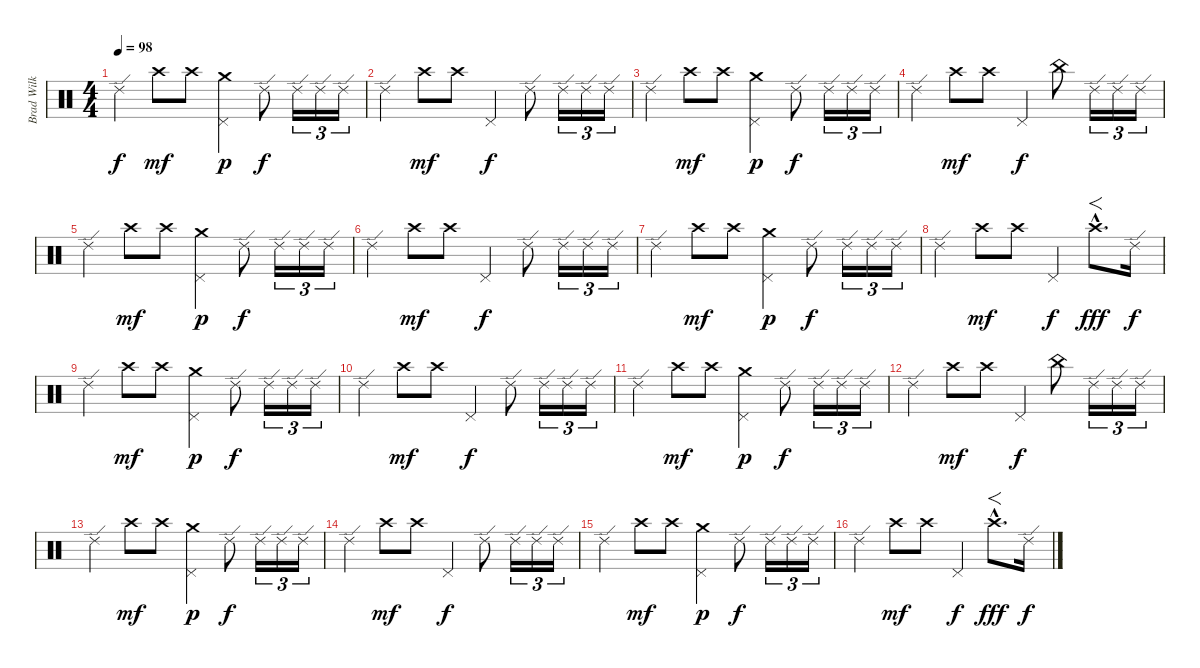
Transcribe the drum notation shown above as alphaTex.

\track ("Brad Wilk" "Brad Wilk") {instrument percussion}
\staff {score}
\articulation defaults
\ts (4 4)
\tempo 98
\clef neutral
\ks c "Ride (edge) 2".4{dy f} "Crash high (hit)".8{dy mf} "Crash high (hit)".8
("Crash medium (hit)" "Pedal Hi-Hat (hit)").4{dy p} "Ride (edge) 2".8{dy f} "Ride (edge) 2".16{tu (3 2)} "Ride (edge) 2".16{tu (3 2)} "Ride (edge) 2".16{tu (3 2)} |
"Ride (edge) 2".4 "Crash high (hit)".8{dy mf} "Crash high (hit)".8 "Pedal Hi-Hat (hit)".4{dy f} "Ride (edge) 2".8 "Ride (edge) 2".16{tu (3 2)} "Ride (edge) 2".16{tu (3 2)} "Ride (edge) 2".16{tu (3 2)} |
"Ride (edge) 2".4 "Crash high (hit)".8{dy mf} "Crash high (hit)".8 ("Crash medium (hit)" "Pedal Hi-Hat (hit)").4{dy p} "Ride (edge) 2".8{dy f} "Ride (edge) 2".16{tu (3 2)} "Ride (edge) 2".16{tu (3 2)} "Ride (edge) 2".16{tu (3 2)} |
"Ride (edge) 2".4 "Crash high (hit)".8{dy mf} "Crash high (hit)".8 "Pedal Hi-Hat (hit)".4{dy f} "China (hit)".8 "Ride (edge) 2".16{tu (3 2)} "Ride (edge) 2".16{tu (3 2)} "Ride (edge) 2".16{tu (3 2)} |
"Ride (edge) 2".4 "Crash high (hit)".8{dy mf} "Crash high (hit)".8 ("Crash medium (hit)" "Pedal Hi-Hat (hit)").4{dy p} "Ride (edge) 2".8{dy f} "Ride (edge) 2".16{tu (3 2)} "Ride (edge) 2".16{tu (3 2)} "Ride (edge) 2".16{tu (3 2)} |
"Ride (edge) 2".4 "Crash high (hit)".8{dy mf} "Crash high (hit)".8 "Pedal Hi-Hat (hit)".4{dy f} "Ride (edge) 2".8 "Ride (edge) 2".16{tu (3 2)} "Ride (edge) 2".16{tu (3 2)} "Ride (edge) 2".16{tu (3 2)} |
"Ride (edge) 2".4 "Crash high (hit)".8{dy mf} "Crash high (hit)".8 ("Crash medium (hit)" "Pedal Hi-Hat (hit)").4{dy p} "Ride (edge) 2".8{dy f} "Ride (edge) 2".16{tu (3 2)} "Ride (edge) 2".16{tu (3 2)} "Ride (edge) 2".16{tu (3 2)} |
"Ride (edge) 2".4 "Crash high (hit)".8{dy mf} "Crash high (hit)".8 "Pedal Hi-Hat (hit)".4{dy f} "Crash high (hit)"{hac}.8{f d dy fff} "Ride (edge) 2".16{dy f} |
"Ride (edge) 2".4 "Crash high (hit)".8{dy mf} "Crash high (hit)".8 ("Crash medium (hit)" "Pedal Hi-Hat (hit)").4{dy p} "Ride (edge) 2".8{dy f} "Ride (edge) 2".16{tu (3 2)} "Ride (edge) 2".16{tu (3 2)} "Ride (edge) 2".16{tu (3 2)} |
"Ride (edge) 2".4 "Crash high (hit)".8{dy mf} "Crash high (hit)".8 "Pedal Hi-Hat (hit)".4{dy f} "Ride (edge) 2".8 "Ride (edge) 2".16{tu (3 2)} "Ride (edge) 2".16{tu (3 2)} "Ride (edge) 2".16{tu (3 2)} |
"Ride (edge) 2".4 "Crash high (hit)".8{dy mf} "Crash high (hit)".8 ("Crash medium (hit)" "Pedal Hi-Hat (hit)").4{dy p} "Ride (edge) 2".8{dy f} "Ride (edge) 2".16{tu (3 2)} "Ride (edge) 2".16{tu (3 2)} "Ride (edge) 2".16{tu (3 2)} |
"Ride (edge) 2".4 "Crash high (hit)".8{dy mf} "Crash high (hit)".8 "Pedal Hi-Hat (hit)".4{dy f} "China (hit)".8 "Ride (edge) 2".16{tu (3 2)} "Ride (edge) 2".16{tu (3 2)} "Ride (edge) 2".16{tu (3 2)} |
"Ride (edge) 2".4 "Crash high (hit)".8{dy mf} "Crash high (hit)".8 ("Crash medium (hit)" "Pedal Hi-Hat (hit)").4{dy p} "Ride (edge) 2".8{dy f} "Ride (edge) 2".16{tu (3 2)} "Ride (edge) 2".16{tu (3 2)} "Ride (edge) 2".16{tu (3 2)} |
"Ride (edge) 2".4 "Crash high (hit)".8{dy mf} "Crash high (hit)".8 "Pedal Hi-Hat (hit)".4{dy f} "Ride (edge) 2".8 "Ride (edge) 2".16{tu (3 2)} "Ride (edge) 2".16{tu (3 2)} "Ride (edge) 2".16{tu (3 2)} |
"Ride (edge) 2".4 "Crash high (hit)".8{dy mf} "Crash high (hit)".8 ("Crash medium (hit)" "Pedal Hi-Hat (hit)").4{dy p} "Ride (edge) 2".8{dy f} "Ride (edge) 2".16{tu (3 2)} "Ride (edge) 2".16{tu (3 2)} "Ride (edge) 2".16{tu (3 2)} |
"Ride (edge) 2".4 "Crash high (hit)".8{dy mf} "Crash high (hit)".8 "Pedal Hi-Hat (hit)".4{dy f} "Crash high (hit)"{hac}.8{f d dy fff} "Ride (edge) 2".16{dy f}
